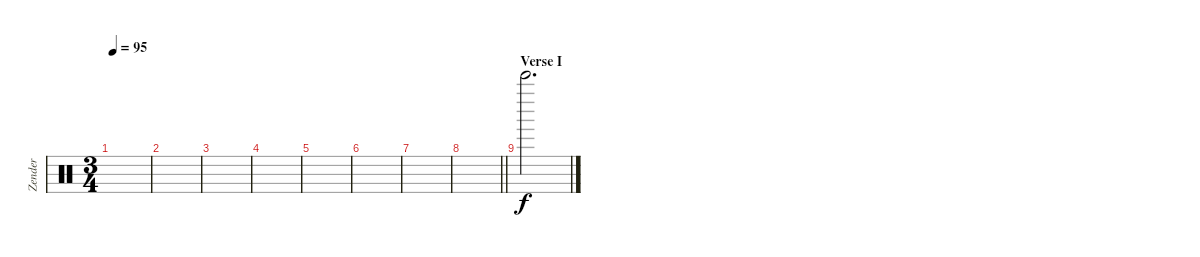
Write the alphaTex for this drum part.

\track ("Zender" "Zender") {instrument percussion}
\staff {score}
\articulation defaults
\ts (3 4)
\tempo 95
\clef neutral
\ks c
|
|
|
|
|
|
|
\barLineRight lightlight
|
\section ("" "Verse I")
"Bell Tree (hit)".2{d}
